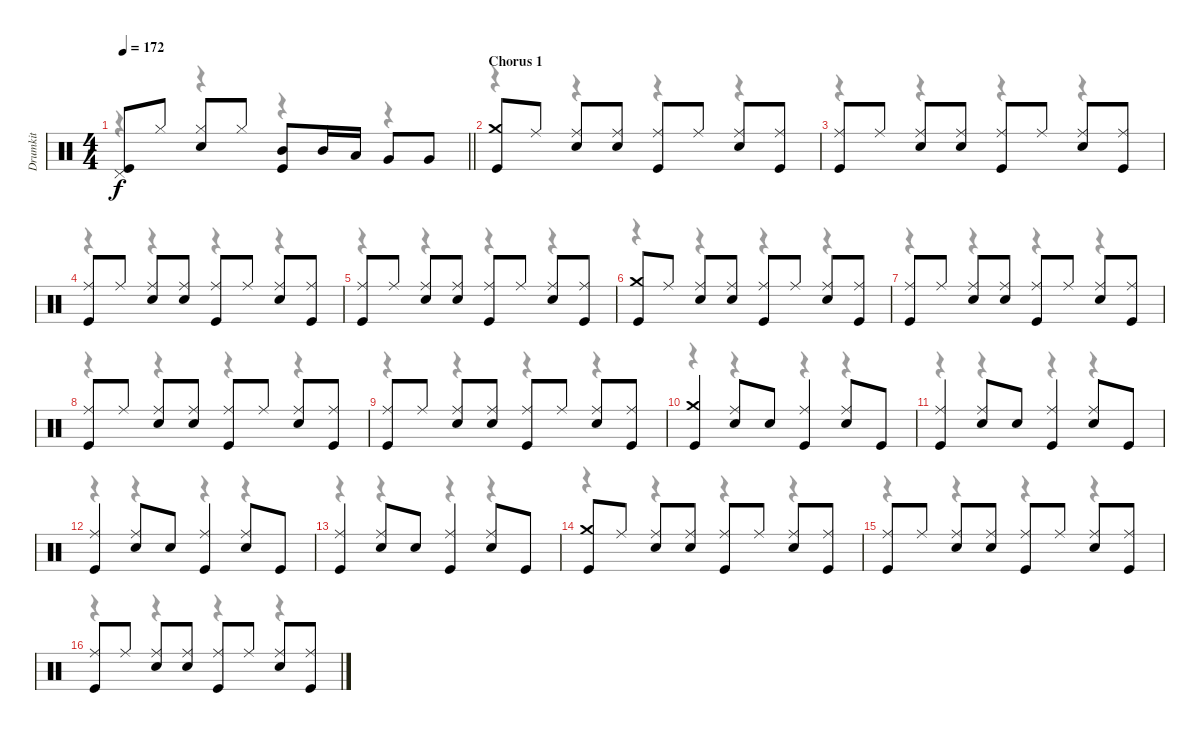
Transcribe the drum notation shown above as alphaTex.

\track ("Drumkit" "Drumkit") {instrument percussion}
\staff {score}
\articulation defaults
\voice
\ts (4 4)
\tempo 172
\clef neutral
\barLineRight lightlight
\ks c
("Pedal Hi-Hat (hit)" "Kick (hit)").8{dy f} "Hi-Hat (closed)".8 ("Hi-Hat (closed)" "Snare (hit) 2").8 "Hi-Hat (closed)".8 ("Mid Tom (hit)" "Kick (hit)").8 "Mid Tom (hit)".16 "Low Tom (hit)".16 "Very Low Tom (hit)".8 "Very Low Tom (hit)".8 |
\section ("" "Chorus 1")
("Crash medium (hit)" "Kick (hit)").8 "Ride (middle)".8 ("Ride (middle)" "Snare (hit) 2").8 ("Ride (middle)" "Snare (hit) 2").8 ("Ride (middle)" "Kick (hit)").8 "Ride (middle)".8 ("Ride (middle)" "Snare (hit) 2").8 ("Ride (middle)" "Kick (hit)").8 |
("Ride (middle)" "Kick (hit)").8 "Ride (middle)".8 ("Ride (middle)" "Snare (hit) 2").8 ("Ride (middle)" "Snare (hit) 2").8 ("Ride (middle)" "Kick (hit)").8 "Ride (middle)".8 ("Ride (middle)" "Snare (hit) 2").8 ("Ride (middle)" "Kick (hit)").8 |
("Ride (middle)" "Kick (hit)").8 "Ride (middle)".8 ("Ride (middle)" "Snare (hit) 2").8 ("Ride (middle)" "Snare (hit) 2").8 ("Ride (middle)" "Kick (hit)").8 "Ride (middle)".8 ("Ride (middle)" "Snare (hit) 2").8 ("Ride (middle)" "Kick (hit)").8 |
("Ride (middle)" "Kick (hit)").8 "Ride (middle)".8 ("Ride (middle)" "Snare (hit) 2").8 ("Ride (middle)" "Snare (hit) 2").8 ("Ride (middle)" "Kick (hit)").8 "Ride (middle)".8 ("Ride (middle)" "Snare (hit) 2").8 ("Ride (middle)" "Kick (hit)").8 |
("Crash medium (hit)" "Kick (hit)").8 "Ride (middle)".8 ("Ride (middle)" "Snare (hit) 2").8 ("Ride (middle)" "Snare (hit) 2").8 ("Ride (middle)" "Kick (hit)").8 "Ride (middle)".8 ("Ride (middle)" "Snare (hit) 2").8 ("Ride (middle)" "Kick (hit)").8 |
("Ride (middle)" "Kick (hit)").8 "Ride (middle)".8 ("Ride (middle)" "Snare (hit) 2").8 ("Ride (middle)" "Snare (hit) 2").8 ("Ride (middle)" "Kick (hit)").8 "Ride (middle)".8 ("Ride (middle)" "Snare (hit) 2").8 ("Ride (middle)" "Kick (hit)").8 |
("Ride (middle)" "Kick (hit)").8 "Ride (middle)".8 ("Ride (middle)" "Snare (hit) 2").8 ("Ride (middle)" "Snare (hit) 2").8 ("Ride (middle)" "Kick (hit)").8 "Ride (middle)".8 ("Ride (middle)" "Snare (hit) 2").8 ("Ride (middle)" "Kick (hit)").8 |
("Ride (middle)" "Kick (hit)").8 "Ride (middle)".8 ("Ride (middle)" "Snare (hit) 2").8 ("Ride (middle)" "Snare (hit) 2").8 ("Ride (middle)" "Kick (hit)").8 "Ride (middle)".8 ("Ride (middle)" "Snare (hit) 2").8 ("Ride (middle)" "Kick (hit)").8 |
("Crash medium (hit)" "Kick (hit)").4 ("Ride (middle)" "Snare (hit) 2").8 "Snare (hit) 2".8 ("Ride (middle)" "Kick (hit)").4 ("Ride (middle)" "Snare (hit) 2").8 "Kick (hit)".8 |
("Ride (middle)" "Kick (hit)").4 ("Ride (middle)" "Snare (hit) 2").8 "Snare (hit) 2".8 ("Ride (middle)" "Kick (hit)").4 ("Ride (middle)" "Snare (hit) 2").8 "Kick (hit)".8 |
("Ride (middle)" "Kick (hit)").4 ("Ride (middle)" "Snare (hit) 2").8 "Snare (hit) 2".8 ("Ride (middle)" "Kick (hit)").4 ("Ride (middle)" "Snare (hit) 2").8 "Kick (hit)".8 |
("Ride (middle)" "Kick (hit)").4 ("Ride (middle)" "Snare (hit) 2").8 "Snare (hit) 2".8 ("Ride (middle)" "Kick (hit)").4 ("Ride (middle)" "Snare (hit) 2").8 "Kick (hit)".8 |
("Crash medium (hit)" "Kick (hit)").8 "Ride (middle)".8 ("Ride (middle)" "Snare (hit) 2").8 ("Ride (middle)" "Snare (hit) 2").8 ("Ride (middle)" "Kick (hit)").8 "Ride (middle)".8 ("Ride (middle)" "Snare (hit) 2").8 ("Ride (middle)" "Kick (hit)").8 |
("Ride (middle)" "Kick (hit)").8 "Ride (middle)".8 ("Ride (middle)" "Snare (hit) 2").8 ("Ride (middle)" "Snare (hit) 2").8 ("Ride (middle)" "Kick (hit)").8 "Ride (middle)".8 ("Ride (middle)" "Snare (hit) 2").8 ("Ride (middle)" "Kick (hit)").8 |
("Ride (middle)" "Kick (hit)").8 "Ride (middle)".8 ("Ride (middle)" "Snare (hit) 2").8 ("Ride (middle)" "Snare (hit) 2").8 ("Ride (middle)" "Kick (hit)").8 "Ride (middle)".8 ("Ride (middle)" "Snare (hit) 2").8 ("Ride (middle)" "Kick (hit)").8
\voice
\clef neutral
\ottava regular
\simile none
\barLineRight lightlight
\ks c
r.4{dy f} r.4 r.4 r.4 |
r.4 r.4 r.4 r.4 |
r.4 r.4 r.4 r.4 |
r.4 r.4 r.4 r.4 |
r.4 r.4 r.4 r.4 |
r.4 r.4 r.4 r.4 |
r.4 r.4 r.4 r.4 |
r.4 r.4 r.4 r.4 |
r.4 r.4 r.4 r.4 |
r.4 r.4 r.4 r.4 |
r.4 r.4 r.4 r.4 |
r.4 r.4 r.4 r.4 |
r.4 r.4 r.4 r.4 |
r.4 r.4 r.4 r.4 |
r.4 r.4 r.4 r.4 |
r.4 r.4 r.4 r.4
